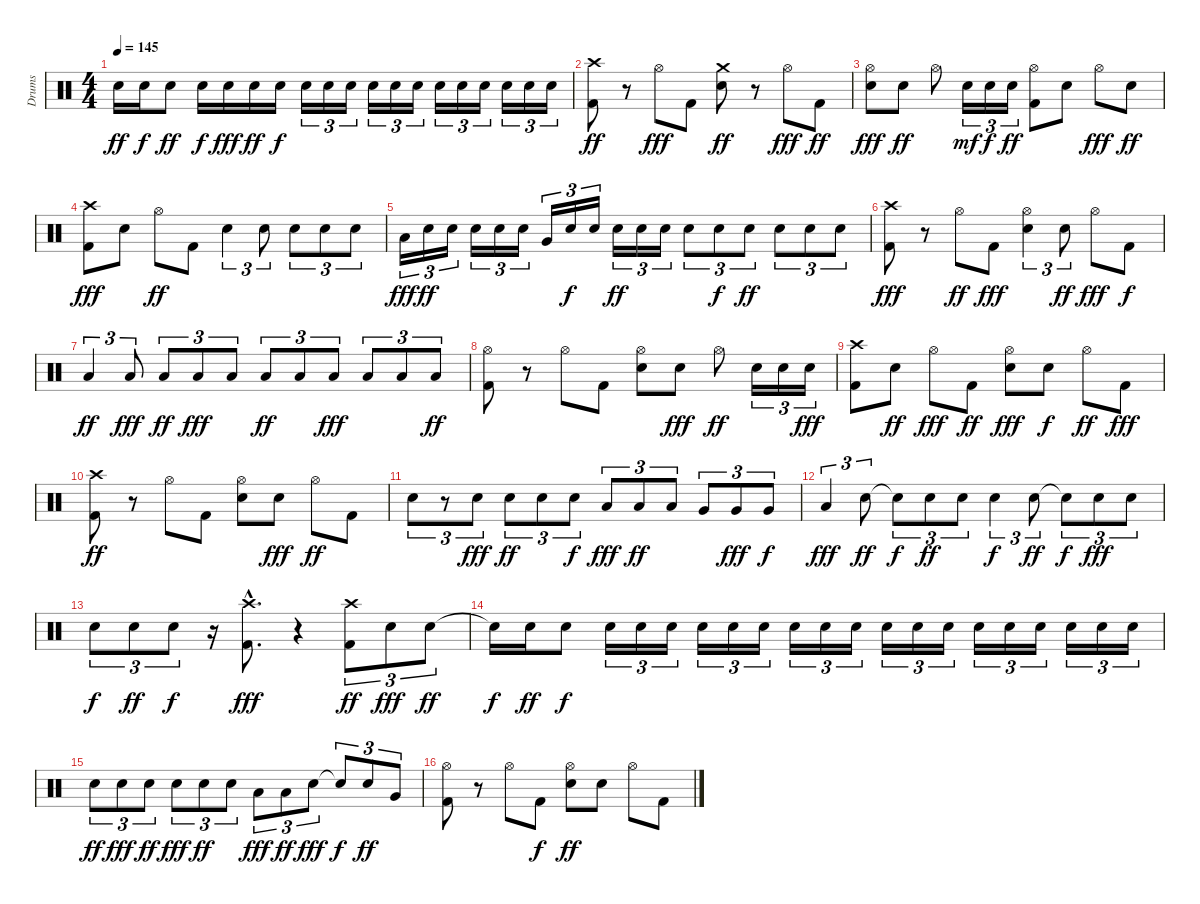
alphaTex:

\track ("Drums" "Drums") {instrument percussion}
\staff {score}
\articulation defaults
\ts (4 4)
\tempo 145
\clef neutral
\ks c "Snare (hit) 2".16{dy ff} "Snare (hit) 2".16{dy f} "Snare (hit) 2".8{dy ff} "Snare (hit) 2".16{dy f} "Snare (hit) 2".16{dy fff} "Snare (hit) 2".16{dy ff} "Snare (hit) 2".16{dy f} "Snare (hit) 2".16{tu (3 2)} "Snare (hit) 2".16{tu (3 2)} "Snare (hit) 2".16{tu (3 2)} "Snare (hit) 2".16{tu (3 2)} "Snare (hit) 2".16{tu (3 2)} "Snare (hit) 2".16{tu (3 2)} "Snare (hit) 2".16{tu (3 2)} "Snare (hit) 2".16{tu (3 2)} "Snare (hit) 2".16{tu (3 2)} "Snare (hit) 2".16{tu (3 2)} "Snare (hit) 2".16{tu (3 2)} "Snare (hit) 2".16{tu (3 2)}
|
("Crash high (hit)" "Kick (hit) 2").8{dy ff} r.8 "Hi-Hat (open)".8{dy fff} "Kick (hit) 2".8 ("Crash medium (hit)" "Snare (hit) 2").8{dy ff} r.8 "Hi-Hat (open)".8{dy fff} "Kick (hit) 2".8{dy ff} |
("Hi-Hat (open)" "Snare (hit) 2").8{dy fff} "Snare (hit) 2".8{dy ff} "Hi-Hat (open)".8 "Snare (hit) 2".16{tu (3 2) dy mf} "Snare (hit) 2".16{tu (3 2) dy f} "Snare (hit) 2".16{tu (3 2) dy ff} ("Hi-Hat (open)" "Kick (hit) 2").8 "Snare (hit) 2".8 "Hi-Hat (open)".8{dy fff} "Snare (hit) 2".8{dy ff} |
("Crash high (hit)" "Kick (hit) 2").8{dy fff} "Snare (hit) 2".8 "Hi-Hat (open)".8{dy ff} "Kick (hit) 2".8 "Snare (hit) 2".4{tu (3 2)} "Snare (hit) 2".8{tu (3 2)} "Snare (hit) 2".8{tu (3 2)} "Snare (hit) 2".8{tu (3 2)} "Snare (hit) 2".8{tu (3 2)} |
"Low Tom (hit)".16{tu (3 2) dy fff} "Snare (hit) 2".16{tu (3 2) dy ff} "Snare (hit) 2".16{tu (3 2)} "Snare (hit) 2".16{tu (3 2)} "Snare (hit) 2".16{tu (3 2)} "Snare (hit) 2".16{tu (3 2)} "Very Low Tom (hit)".16{tu (3 2)} "Snare (hit) 2".16{tu (3 2) dy f} "Snare (hit) 2".16{tu (3 2)} "Snare (hit) 2".16{tu (3 2) dy ff} "Snare (hit) 2".16{tu (3 2)} "Snare (hit) 2".16{tu (3 2)} "Snare (hit) 2".8{tu (3 2)} "Snare (hit) 2".8{tu (3 2) dy f} "Snare (hit) 2".8{tu (3 2) dy ff} "Snare (hit) 2".8{tu (3 2)} "Snare (hit) 2".8{tu (3 2)} "Snare (hit) 2".8{tu (3 2)} |
("Crash high (hit)" "Kick (hit) 2").8{dy fff} r.8 "Hi-Hat (open)".8{dy ff} "Kick (hit) 2".8{dy fff} ("Hi-Hat (open)" "Snare (hit) 2").4{tu (3 2)} "Snare (hit) 2".8{tu (3 2) dy ff} "Hi-Hat (open)".8{dy fff} "Kick (hit) 2".8{dy f} |
"Low Tom (hit)".4{tu (3 2) dy ff} "Low Floor Tom (hit)".8{tu (3 2) dy fff} "Low Tom (hit)".8{tu (3 2) dy ff} "Low Tom (hit)".8{tu (3 2) dy fff} "Low Floor Tom (hit)".8{tu (3 2)} "Low Tom (hit)".8{tu (3 2) dy ff} "Low Tom (hit)".8{tu (3 2)} "Low Floor Tom (hit)".8{tu (3 2) dy fff} "Low Tom (hit)".8{tu (3 2)} "Low Tom (hit)".8{tu (3 2)} "Low Floor Tom (hit)".8{tu (3 2) dy ff} |
("Hi-Hat (open)" "Kick (hit) 2").8 r.8 "Hi-Hat (open)".8 "Kick (hit) 2".8 ("Hi-Hat (open)" "Snare (hit) 2").8 "Snare (hit) 2".8{dy fff} "Hi-Hat (open)".8{dy ff} "Snare (hit) 2".16{tu (3 2)} "Snare (hit) 2".16{tu (3 2)} "Snare (hit) 2".16{tu (3 2) dy fff} |
("Crash high (hit)" "Kick (hit) 2").8 "Snare (hit) 2".8{dy ff} "Hi-Hat (open)".8{dy fff} "Kick (hit) 2".8{dy ff} ("Hi-Hat (open)" "Snare (hit) 2").8{dy fff} "Snare (hit) 2".8{dy f} "Hi-Hat (open)".8{dy ff} "Kick (hit) 2".8{dy fff} |
("Crash high (hit)" "Kick (hit) 2").8{dy ff} r.8 "Hi-Hat (open)".8 "Kick (hit) 2".8 ("Hi-Hat (open)" "Snare (hit) 2").8 "Snare (hit) 2".8{dy fff} "Hi-Hat (open)".8{dy ff} "Kick (hit) 2".8 |
"Snare (hit) 2".8{tu (3 2)} r.8{tu (3 2)} "Snare (hit) 2".8{tu (3 2) dy fff} "Snare (hit) 2".8{tu (3 2) dy ff} "Snare (hit) 2".8{tu (3 2)} "Snare (hit) 2".8{tu (3 2) dy f} "Low Tom (hit)".8{tu (3 2) dy fff} "Low Tom (hit)".8{tu (3 2) dy ff} "Low Tom (hit)".8{tu (3 2)} "Very Low Tom (hit)".8{tu (3 2)} "Very Low Tom (hit)".8{tu (3 2) dy fff} "Very Low Tom (hit)".8{tu (3 2) dy f} |
"Low Tom (hit)".4{tu (3 2) dy fff} "Snare (hit) 2".8{tu (3 2) dy ff} "Snare (hit)"{t}.8{tu (3 2) dy f} "Snare (hit) 2".8{tu (3 2) dy ff} "Snare (hit) 2".8{tu (3 2)} "Snare (hit) 2".4{tu (3 2) dy f} "Snare (hit) 2".8{tu (3 2) dy ff} "Snare (hit)"{t}.8{tu (3 2) dy f} "Snare (hit) 2".8{tu (3 2) dy fff} "Snare (hit) 2".8{tu (3 2)} |
"Snare (hit) 2".8{tu (3 2) dy f} "Snare (hit) 2".8{tu (3 2) dy ff} "Snare (hit) 2".8{tu (3 2) dy f} r.16 ("Crash high (hit)"{hac} "Kick (hit) 2"{hac}).8{d dy fff} r.4 ("Crash high (hit)" "Kick (hit) 2").8{tu (3 2) dy ff} "Snare (hit) 2".8{tu (3 2) dy fff} "Snare (hit) 2".8{tu (3 2) dy ff} |
"Snare (hit)"{t}.16{dy f} "Snare (hit) 2".16{dy ff} "Snare (hit) 2".8{dy f} "Snare (hit) 2".16{tu (3 2)} "Snare (hit) 2".16{tu (3 2)} "Snare (hit) 2".16{tu (3 2)} "Snare (hit) 2".16{tu (3 2)} "Snare (hit) 2".16{tu (3 2)} "Snare (hit) 2".16{tu (3 2)} "Snare (hit) 2".16{tu (3 2)} "Snare (hit) 2".16{tu (3 2)} "Snare (hit) 2".16{tu (3 2)} "Snare (hit) 2".16{tu (3 2)} "Snare (hit) 2".16{tu (3 2)} "Snare (hit) 2".16{tu (3 2)} "Snare (hit) 2".16{tu (3 2)} "Snare (hit) 2".16{tu (3 2)} "Snare (hit) 2".16{tu (3 2)} "Snare (hit) 2".16{tu (3 2)} "Snare (hit) 2".16{tu (3 2)} "Snare (hit) 2".16{tu (3 2)} |
"Snare (hit) 2".8{tu (3 2) dy ff} "Snare (hit) 2".8{tu (3 2) dy fff} "Snare (hit) 2".8{tu (3 2) dy ff} "Snare (hit) 2".8{tu (3 2) dy fff} "Snare (hit) 2".8{tu (3 2) dy ff} "Snare (hit) 2".8{tu (3 2)} "Low Tom (hit)".8{tu (3 2) dy fff} "Low Tom (hit)".8{tu (3 2) dy ff} "Snare (hit) 2".8{tu (3 2) dy fff} "Snare (hit)"{t}.8{tu (3 2) dy f} "Snare (hit) 2".8{tu (3 2) dy ff} "Very Low Tom (hit)".8{tu (3 2)} |
("Hi-Hat (open)" "Kick (hit) 2").8 r.8 "Hi-Hat (open)".8 "Kick (hit) 2".8{dy f} ("Hi-Hat (open)" "Snare (hit) 2").8{dy ff} "Snare (hit) 2".8 "Hi-Hat (open)".8 "Kick (hit) 2".8
